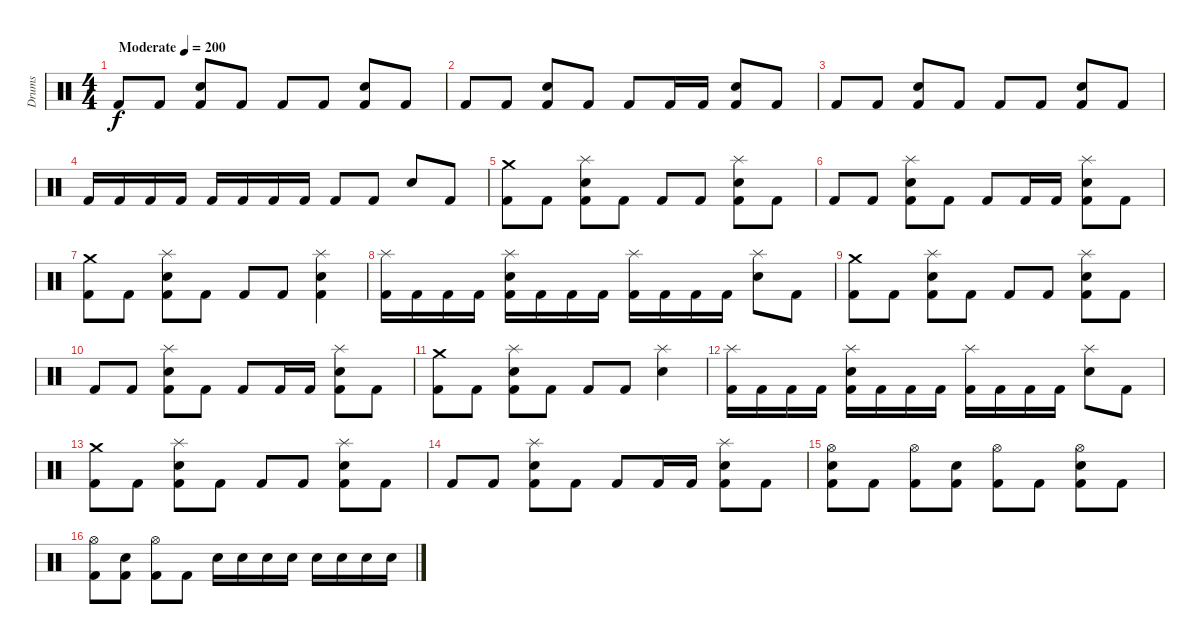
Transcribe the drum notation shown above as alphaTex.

\track ("Drums" "Drums") {instrument percussion}
\staff {score}
\articulation defaults
\ts (4 4)
\tempo (200 "Moderate")
\clef neutral
\ks c "Kick (hit) 2".8{dy f} "Kick (hit) 2".8
("Snare (hit) 2" "Kick (hit) 2").8 "Kick (hit) 2".8 "Kick (hit) 2".8 "Kick (hit) 2".8 ("Snare (hit) 2" "Kick (hit) 2").8 "Kick (hit) 2".8 |
"Kick (hit) 2".8 "Kick (hit) 2".8 ("Snare (hit) 2" "Kick (hit) 2").8 "Kick (hit) 2".8 "Kick (hit) 2".8 "Kick (hit) 2".16 "Kick (hit) 2".16 ("Snare (hit) 2" "Kick (hit) 2").8 "Kick (hit) 2".8 |
"Kick (hit) 2".8 "Kick (hit) 2".8 ("Snare (hit) 2" "Kick (hit) 2").8 "Kick (hit) 2".8 "Kick (hit) 2".8 "Kick (hit) 2".8 ("Snare (hit) 2" "Kick (hit) 2").8 "Kick (hit) 2".8 |
"Kick (hit) 2".16 "Kick (hit) 2".16 "Kick (hit) 2".16 "Kick (hit) 2".16 "Kick (hit) 2".16 "Kick (hit) 2".16 "Kick (hit) 2".16 "Kick (hit) 2".16 "Kick (hit) 2".8 "Kick (hit) 2".8 "Snare (hit) 2".8 "Kick (hit) 2".8 |
("Crash medium (hit)" "Kick (hit) 2").8 "Kick (hit) 2".8 ("Splash (hit)" "Snare (hit) 2" "Kick (hit) 2").8 "Kick (hit) 2".8 "Kick (hit) 2".8 "Kick (hit) 2".8 ("Splash (hit)" "Snare (hit) 2" "Kick (hit) 2").8 "Kick (hit) 2".8 |
"Kick (hit) 2".8 "Kick (hit) 2".8 ("Splash (hit)" "Snare (hit) 2" "Kick (hit) 2").8 "Kick (hit) 2".8 "Kick (hit) 2".8 "Kick (hit) 2".16 "Kick (hit) 2".16 ("Splash (hit)" "Snare (hit) 2" "Kick (hit) 2").8 "Kick (hit) 2".8 |
("Crash medium (hit)" "Kick (hit) 2").8 "Kick (hit) 2".8 ("Splash (hit)" "Snare (hit) 2" "Kick (hit) 2").8 "Kick (hit) 2".8 "Kick (hit) 2".8 "Kick (hit) 2".8 ("Splash (hit)" "Snare (hit) 2" "Kick (hit) 2").4 |
("Splash (hit)" "Kick (hit) 2").16 "Kick (hit) 2".16 "Kick (hit) 2".16 "Kick (hit) 2".16 ("Splash (hit)" "Snare (hit) 2" "Kick (hit) 2").16 "Kick (hit) 2".16 "Kick (hit) 2".16 "Kick (hit) 2".16 ("Splash (hit)" "Kick (hit) 2").16 "Kick (hit) 2".16 "Kick (hit) 2".16 "Kick (hit) 2".16 ("Splash (hit)" "Snare (hit) 2").8 "Kick (hit) 2".8 |
("Crash medium (hit)" "Kick (hit) 2").8 "Kick (hit) 2".8 ("Splash (hit)" "Snare (hit) 2" "Kick (hit) 2").8 "Kick (hit) 2".8 "Kick (hit) 2".8 "Kick (hit) 2".8 ("Splash (hit)" "Snare (hit) 2" "Kick (hit) 2").8 "Kick (hit) 2".8 |
"Kick (hit) 2".8 "Kick (hit) 2".8 ("Splash (hit)" "Snare (hit) 2" "Kick (hit) 2").8 "Kick (hit) 2".8 "Kick (hit) 2".8 "Kick (hit) 2".16 "Kick (hit) 2".16 ("Splash (hit)" "Snare (hit) 2" "Kick (hit) 2").8 "Kick (hit) 2".8 |
("Crash medium (hit)" "Kick (hit) 2").8 "Kick (hit) 2".8 ("Splash (hit)" "Snare (hit) 2" "Kick (hit) 2").8 "Kick (hit) 2".8 "Kick (hit) 2".8 "Kick (hit) 2".8 ("Splash (hit)" "Snare (hit) 2").4 |
("Splash (hit)" "Kick (hit) 2").16 "Kick (hit) 2".16 "Kick (hit) 2".16 "Kick (hit) 2".16 ("Splash (hit)" "Snare (hit) 2" "Kick (hit) 2").16 "Kick (hit) 2".16 "Kick (hit) 2".16 "Kick (hit) 2".16 ("Splash (hit)" "Kick (hit) 2").16 "Kick (hit) 2".16 "Kick (hit) 2".16 "Kick (hit) 2".16 ("Splash (hit)" "Snare (hit) 2").8 "Kick (hit) 2".8 |
("Crash medium (hit)" "Kick (hit) 2").8 "Kick (hit) 2".8 ("Splash (hit)" "Snare (hit) 2" "Kick (hit) 2").8 "Kick (hit) 2".8 "Kick (hit) 2".8 "Kick (hit) 2".8 ("Splash (hit)" "Snare (hit) 2" "Kick (hit) 2").8 "Kick (hit) 2".8 |
"Kick (hit) 2".8 "Kick (hit) 2".8 ("Splash (hit)" "Snare (hit) 2" "Kick (hit) 2").8 "Kick (hit) 2".8 "Kick (hit) 2".8 "Kick (hit) 2".16 "Kick (hit) 2".16 ("Splash (hit)" "Snare (hit) 2" "Kick (hit) 2").8 "Kick (hit) 2".8 |
("Snare (hit) 2" "Hi-Hat (open)" "Kick (hit) 2").8 "Kick (hit) 2".8 ("Hi-Hat (open)" "Kick (hit) 2").8 ("Snare (hit) 2" "Kick (hit) 2").8 ("Hi-Hat (open)" "Kick (hit) 2").8 "Kick (hit) 2".8 ("Snare (hit) 2" "Hi-Hat (open)" "Kick (hit) 2").8 "Kick (hit) 2".8 |
("Hi-Hat (open)" "Kick (hit) 2").8 ("Snare (hit) 2" "Kick (hit) 2").8 ("Hi-Hat (open)" "Kick (hit) 2").8 "Kick (hit) 2".8 "Snare (hit) 2".16 "Snare (hit) 2".16 "Snare (hit) 2".16 "Snare (hit) 2".16 "Snare (hit) 2".16 "Snare (hit) 2".16 "Snare (hit) 2".16 "Snare (hit) 2".16
